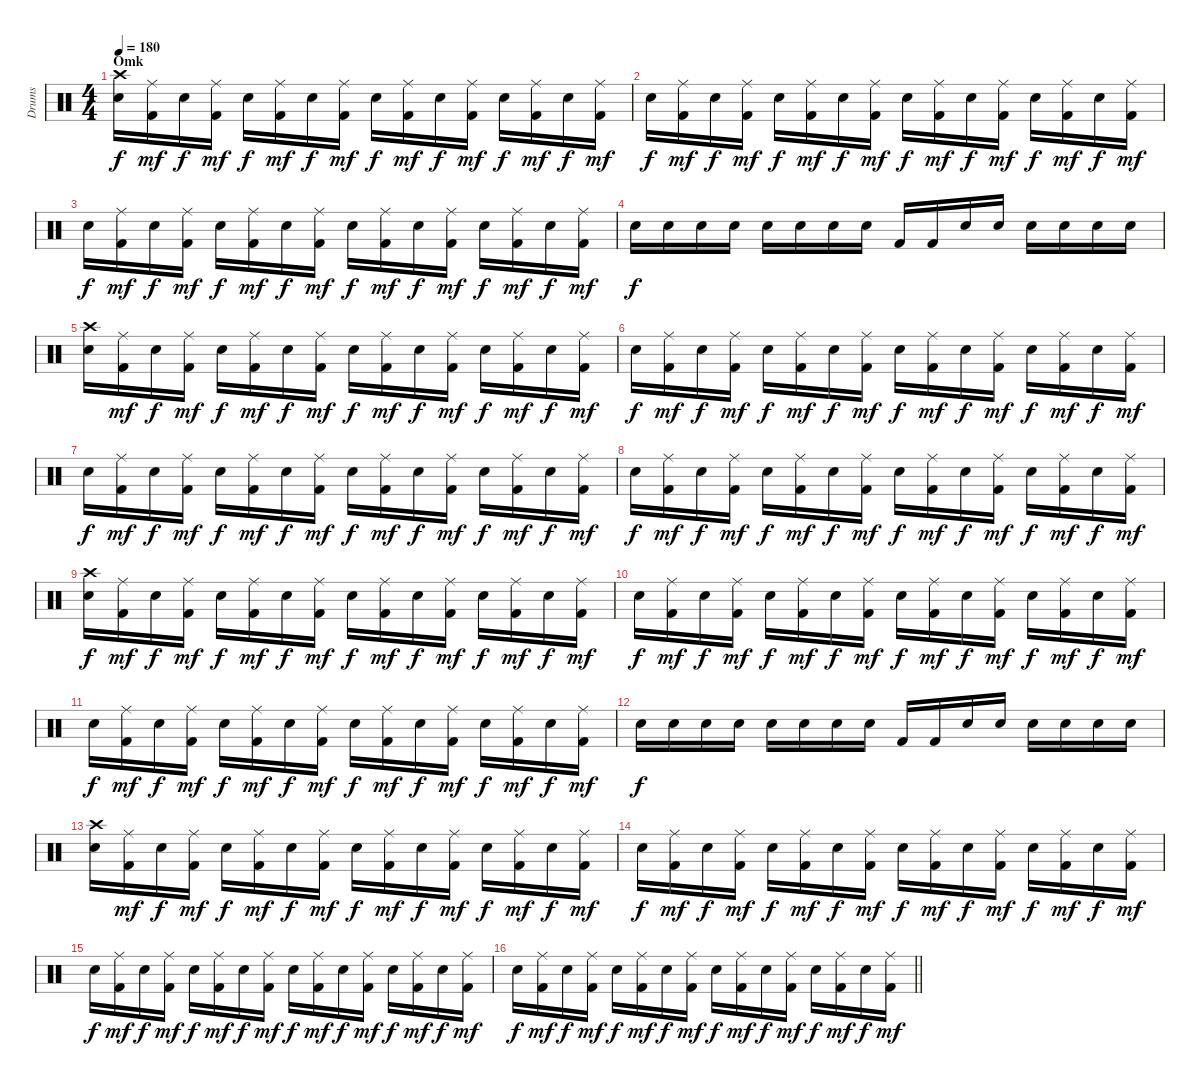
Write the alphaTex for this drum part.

\track ("Drums" "Drums") {instrument percussion}
\staff {score}
\articulation defaults
\ts (4 4)
\section ("" "Omk")
\tempo 180
\clef neutral
\ks c
("Crash high (hit)" "Snare (hit) 2").16{dy f} ("Ride (middle)" "Kick (hit) 2").16{dy mf} "Snare (hit) 2".16{dy f} ("Ride (middle)" "Kick (hit) 2").16{dy mf} "Snare (hit) 2".16{dy f} ("Ride (middle)" "Kick (hit) 2").16{dy mf} "Snare (hit) 2".16{dy f} ("Ride (middle)" "Kick (hit) 2").16{dy mf} "Snare (hit) 2".16{dy f} ("Ride (middle)" "Kick (hit) 2").16{dy mf} "Snare (hit) 2".16{dy f} ("Ride (middle)" "Kick (hit) 2").16{dy mf} "Snare (hit) 2".16{dy f} ("Ride (middle)" "Kick (hit) 2").16{dy mf} "Snare (hit) 2".16{dy f} ("Ride (middle)" "Kick (hit) 2").16{dy mf} |
"Snare (hit) 2".16{dy f} ("Ride (middle)" "Kick (hit) 2").16{dy mf} "Snare (hit) 2".16{dy f} ("Ride (middle)" "Kick (hit) 2").16{dy mf} "Snare (hit) 2".16{dy f} ("Ride (middle)" "Kick (hit) 2").16{dy mf} "Snare (hit) 2".16{dy f} ("Ride (middle)" "Kick (hit) 2").16{dy mf} "Snare (hit) 2".16{dy f} ("Ride (middle)" "Kick (hit) 2").16{dy mf} "Snare (hit) 2".16{dy f} ("Ride (middle)" "Kick (hit) 2").16{dy mf} "Snare (hit) 2".16{dy f} ("Ride (middle)" "Kick (hit) 2").16{dy mf} "Snare (hit) 2".16{dy f} ("Ride (middle)" "Kick (hit) 2").16{dy mf} |
"Snare (hit) 2".16{dy f} ("Ride (middle)" "Kick (hit) 2").16{dy mf} "Snare (hit) 2".16{dy f} ("Ride (middle)" "Kick (hit) 2").16{dy mf} "Snare (hit) 2".16{dy f} ("Ride (middle)" "Kick (hit) 2").16{dy mf} "Snare (hit) 2".16{dy f} ("Ride (middle)" "Kick (hit) 2").16{dy mf} "Snare (hit) 2".16{dy f} ("Ride (middle)" "Kick (hit) 2").16{dy mf} "Snare (hit) 2".16{dy f} ("Ride (middle)" "Kick (hit) 2").16{dy mf} "Snare (hit) 2".16{dy f} ("Ride (middle)" "Kick (hit) 2").16{dy mf} "Snare (hit) 2".16{dy f} ("Ride (middle)" "Kick (hit) 2").16{dy mf} |
"Snare (hit) 2".16{dy f} "Snare (hit) 2".16 "Snare (hit) 2".16 "Snare (hit) 2".16 "Snare (hit) 2".16 "Snare (hit) 2".16 "Snare (hit) 2".16 "Snare (hit) 2".16 "Kick (hit) 2".16 "Kick (hit) 2".16 "Snare (hit) 2".16 "Snare (hit) 2".16 "Snare (hit) 2".16 "Snare (hit) 2".16 "Snare (hit) 2".16 "Snare (hit) 2".16 |
("Crash high (hit)" "Snare (hit) 2").16 ("Ride (middle)" "Kick (hit) 2").16{dy mf} "Snare (hit) 2".16{dy f} ("Ride (middle)" "Kick (hit) 2").16{dy mf} "Snare (hit) 2".16{dy f} ("Ride (middle)" "Kick (hit) 2").16{dy mf} "Snare (hit) 2".16{dy f} ("Ride (middle)" "Kick (hit) 2").16{dy mf} "Snare (hit) 2".16{dy f} ("Ride (middle)" "Kick (hit) 2").16{dy mf} "Snare (hit) 2".16{dy f} ("Ride (middle)" "Kick (hit) 2").16{dy mf} "Snare (hit) 2".16{dy f} ("Ride (middle)" "Kick (hit) 2").16{dy mf} "Snare (hit) 2".16{dy f} ("Ride (middle)" "Kick (hit) 2").16{dy mf} |
"Snare (hit) 2".16{dy f} ("Ride (middle)" "Kick (hit) 2").16{dy mf} "Snare (hit) 2".16{dy f} ("Ride (middle)" "Kick (hit) 2").16{dy mf} "Snare (hit) 2".16{dy f} ("Ride (middle)" "Kick (hit) 2").16{dy mf} "Snare (hit) 2".16{dy f} ("Ride (middle)" "Kick (hit) 2").16{dy mf} "Snare (hit) 2".16{dy f} ("Ride (middle)" "Kick (hit) 2").16{dy mf} "Snare (hit) 2".16{dy f} ("Ride (middle)" "Kick (hit) 2").16{dy mf} "Snare (hit) 2".16{dy f} ("Ride (middle)" "Kick (hit) 2").16{dy mf} "Snare (hit) 2".16{dy f} ("Ride (middle)" "Kick (hit) 2").16{dy mf} |
"Snare (hit) 2".16{dy f} ("Ride (middle)" "Kick (hit) 2").16{dy mf} "Snare (hit) 2".16{dy f} ("Ride (middle)" "Kick (hit) 2").16{dy mf} "Snare (hit) 2".16{dy f} ("Ride (middle)" "Kick (hit) 2").16{dy mf} "Snare (hit) 2".16{dy f} ("Ride (middle)" "Kick (hit) 2").16{dy mf} "Snare (hit) 2".16{dy f} ("Ride (middle)" "Kick (hit) 2").16{dy mf} "Snare (hit) 2".16{dy f} ("Ride (middle)" "Kick (hit) 2").16{dy mf} "Snare (hit) 2".16{dy f} ("Ride (middle)" "Kick (hit) 2").16{dy mf} "Snare (hit) 2".16{dy f} ("Ride (middle)" "Kick (hit) 2").16{dy mf} |
"Snare (hit) 2".16{dy f} ("Ride (middle)" "Kick (hit) 2").16{dy mf} "Snare (hit) 2".16{dy f} ("Ride (middle)" "Kick (hit) 2").16{dy mf} "Snare (hit) 2".16{dy f} ("Ride (middle)" "Kick (hit) 2").16{dy mf} "Snare (hit) 2".16{dy f} ("Ride (middle)" "Kick (hit) 2").16{dy mf} "Snare (hit) 2".16{dy f} ("Ride (middle)" "Kick (hit) 2").16{dy mf} "Snare (hit) 2".16{dy f} ("Ride (middle)" "Kick (hit) 2").16{dy mf} "Snare (hit) 2".16{dy f} ("Ride (middle)" "Kick (hit) 2").16{dy mf} "Snare (hit) 2".16{dy f} ("Ride (middle)" "Kick (hit) 2").16{dy mf} |
("Crash high (hit)" "Snare (hit) 2").16{dy f} ("Ride (middle)" "Kick (hit) 2").16{dy mf} "Snare (hit) 2".16{dy f} ("Ride (middle)" "Kick (hit) 2").16{dy mf} "Snare (hit) 2".16{dy f} ("Ride (middle)" "Kick (hit) 2").16{dy mf} "Snare (hit) 2".16{dy f} ("Ride (middle)" "Kick (hit) 2").16{dy mf} "Snare (hit) 2".16{dy f} ("Ride (middle)" "Kick (hit) 2").16{dy mf} "Snare (hit) 2".16{dy f} ("Ride (middle)" "Kick (hit) 2").16{dy mf} "Snare (hit) 2".16{dy f} ("Ride (middle)" "Kick (hit) 2").16{dy mf} "Snare (hit) 2".16{dy f} ("Ride (middle)" "Kick (hit) 2").16{dy mf} |
"Snare (hit) 2".16{dy f} ("Ride (middle)" "Kick (hit) 2").16{dy mf} "Snare (hit) 2".16{dy f} ("Ride (middle)" "Kick (hit) 2").16{dy mf} "Snare (hit) 2".16{dy f} ("Ride (middle)" "Kick (hit) 2").16{dy mf} "Snare (hit) 2".16{dy f} ("Ride (middle)" "Kick (hit) 2").16{dy mf} "Snare (hit) 2".16{dy f} ("Ride (middle)" "Kick (hit) 2").16{dy mf} "Snare (hit) 2".16{dy f} ("Ride (middle)" "Kick (hit) 2").16{dy mf} "Snare (hit) 2".16{dy f} ("Ride (middle)" "Kick (hit) 2").16{dy mf} "Snare (hit) 2".16{dy f} ("Ride (middle)" "Kick (hit) 2").16{dy mf} |
"Snare (hit) 2".16{dy f} ("Ride (middle)" "Kick (hit) 2").16{dy mf} "Snare (hit) 2".16{dy f} ("Ride (middle)" "Kick (hit) 2").16{dy mf} "Snare (hit) 2".16{dy f} ("Ride (middle)" "Kick (hit) 2").16{dy mf} "Snare (hit) 2".16{dy f} ("Ride (middle)" "Kick (hit) 2").16{dy mf} "Snare (hit) 2".16{dy f} ("Ride (middle)" "Kick (hit) 2").16{dy mf} "Snare (hit) 2".16{dy f} ("Ride (middle)" "Kick (hit) 2").16{dy mf} "Snare (hit) 2".16{dy f} ("Ride (middle)" "Kick (hit) 2").16{dy mf} "Snare (hit) 2".16{dy f} ("Ride (middle)" "Kick (hit) 2").16{dy mf} |
"Snare (hit) 2".16{dy f} "Snare (hit) 2".16 "Snare (hit) 2".16 "Snare (hit) 2".16 "Snare (hit) 2".16 "Snare (hit) 2".16 "Snare (hit) 2".16 "Snare (hit) 2".16 "Kick (hit) 2".16 "Kick (hit) 2".16 "Snare (hit) 2".16 "Snare (hit) 2".16 "Snare (hit) 2".16 "Snare (hit) 2".16 "Snare (hit) 2".16 "Snare (hit) 2".16 |
("Crash high (hit)" "Snare (hit) 2").16 ("Ride (middle)" "Kick (hit) 2").16{dy mf} "Snare (hit) 2".16{dy f} ("Ride (middle)" "Kick (hit) 2").16{dy mf} "Snare (hit) 2".16{dy f} ("Ride (middle)" "Kick (hit) 2").16{dy mf} "Snare (hit) 2".16{dy f} ("Ride (middle)" "Kick (hit) 2").16{dy mf} "Snare (hit) 2".16{dy f} ("Ride (middle)" "Kick (hit) 2").16{dy mf} "Snare (hit) 2".16{dy f} ("Ride (middle)" "Kick (hit) 2").16{dy mf} "Snare (hit) 2".16{dy f} ("Ride (middle)" "Kick (hit) 2").16{dy mf} "Snare (hit) 2".16{dy f} ("Ride (middle)" "Kick (hit) 2").16{dy mf} |
"Snare (hit) 2".16{dy f} ("Ride (middle)" "Kick (hit) 2").16{dy mf} "Snare (hit) 2".16{dy f} ("Ride (middle)" "Kick (hit) 2").16{dy mf} "Snare (hit) 2".16{dy f} ("Ride (middle)" "Kick (hit) 2").16{dy mf} "Snare (hit) 2".16{dy f} ("Ride (middle)" "Kick (hit) 2").16{dy mf} "Snare (hit) 2".16{dy f} ("Ride (middle)" "Kick (hit) 2").16{dy mf} "Snare (hit) 2".16{dy f} ("Ride (middle)" "Kick (hit) 2").16{dy mf} "Snare (hit) 2".16{dy f} ("Ride (middle)" "Kick (hit) 2").16{dy mf} "Snare (hit) 2".16{dy f} ("Ride (middle)" "Kick (hit) 2").16{dy mf} |
"Snare (hit) 2".16{dy f} ("Ride (middle)" "Kick (hit) 2").16{dy mf} "Snare (hit) 2".16{dy f} ("Ride (middle)" "Kick (hit) 2").16{dy mf} "Snare (hit) 2".16{dy f} ("Ride (middle)" "Kick (hit) 2").16{dy mf} "Snare (hit) 2".16{dy f} ("Ride (middle)" "Kick (hit) 2").16{dy mf} "Snare (hit) 2".16{dy f} ("Ride (middle)" "Kick (hit) 2").16{dy mf} "Snare (hit) 2".16{dy f} ("Ride (middle)" "Kick (hit) 2").16{dy mf} "Snare (hit) 2".16{dy f} ("Ride (middle)" "Kick (hit) 2").16{dy mf} "Snare (hit) 2".16{dy f} ("Ride (middle)" "Kick (hit) 2").16{dy mf} |
\barLineRight lightlight "Snare (hit) 2".16{dy f}
("Ride (middle)" "Kick (hit) 2").16{dy mf} "Snare (hit) 2".16{dy f} ("Ride (middle)" "Kick (hit) 2").16{dy mf} "Snare (hit) 2".16{dy f} ("Ride (middle)" "Kick (hit) 2").16{dy mf} "Snare (hit) 2".16{dy f} ("Ride (middle)" "Kick (hit) 2").16{dy mf} "Snare (hit) 2".16{dy f} ("Ride (middle)" "Kick (hit) 2").16{dy mf} "Snare (hit) 2".16{dy f} ("Ride (middle)" "Kick (hit) 2").16{dy mf} "Snare (hit) 2".16{dy f} ("Ride (middle)" "Kick (hit) 2").16{dy mf} "Snare (hit) 2".16{dy f} ("Ride (middle)" "Kick (hit) 2").16{dy mf}
